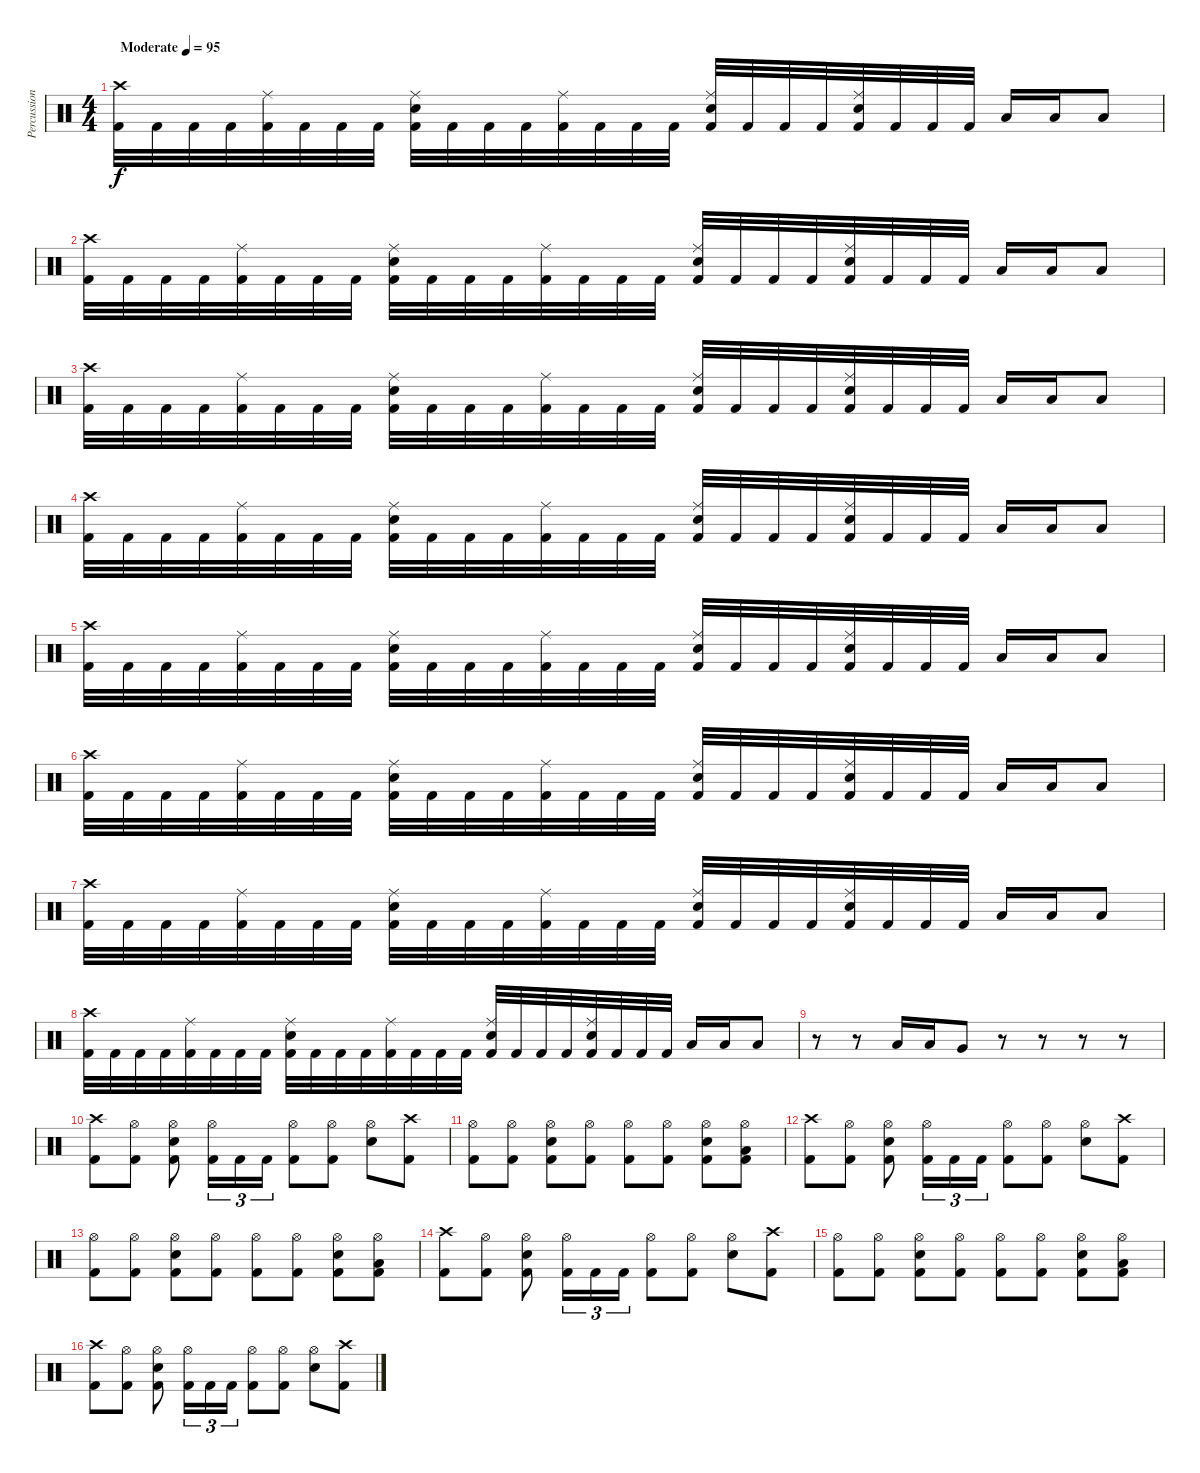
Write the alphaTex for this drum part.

\track ("Percussion" "Percussion") {instrument percussion}
\staff {score}
\articulation defaults
\ts (4 4)
\tempo (95 "Moderate")
\clef neutral
\ks c
("Crash high (hit)" "Kick (hit) 2").32{dy f} "Kick (hit) 2".32 "Kick (hit) 2".32 "Kick (hit) 2".32 ("Ride (middle)" "Kick (hit) 2").32 "Kick (hit) 2".32 "Kick (hit) 2".32 "Kick (hit) 2".32 ("Ride (middle)" "Snare (hit) 2" "Kick (hit) 2").32 "Kick (hit) 2".32 "Kick (hit) 2".32 "Kick (hit) 2".32 ("Ride (middle)" "Kick (hit) 2").32 "Kick (hit) 2".32 "Kick (hit) 2".32 "Kick (hit) 2".32 ("Ride (middle)" "Snare (hit) 2" "Kick (hit) 2").32 "Kick (hit) 2".32 "Kick (hit) 2".32 "Kick (hit) 2".32 ("Ride (middle)" "Snare (hit) 2" "Kick (hit) 2").32 "Kick (hit) 2".32 "Kick (hit) 2".32 "Kick (hit) 2".32 "Low Tom (hit)".16 "Low Tom (hit)".16 "Low Tom (hit)".8 |
("Crash high (hit)" "Kick (hit) 2").32 "Kick (hit) 2".32 "Kick (hit) 2".32 "Kick (hit) 2".32 ("Ride (middle)" "Kick (hit) 2").32 "Kick (hit) 2".32 "Kick (hit) 2".32 "Kick (hit) 2".32 ("Ride (middle)" "Snare (hit) 2" "Kick (hit) 2").32 "Kick (hit) 2".32 "Kick (hit) 2".32 "Kick (hit) 2".32 ("Ride (middle)" "Kick (hit) 2").32 "Kick (hit) 2".32 "Kick (hit) 2".32 "Kick (hit) 2".32 ("Ride (middle)" "Snare (hit) 2" "Kick (hit) 2").32 "Kick (hit) 2".32 "Kick (hit) 2".32 "Kick (hit) 2".32 ("Ride (middle)" "Snare (hit) 2" "Kick (hit) 2").32 "Kick (hit) 2".32 "Kick (hit) 2".32 "Kick (hit) 2".32 "Low Tom (hit)".16 "Low Tom (hit)".16 "Low Tom (hit)".8 |
("Crash high (hit)" "Kick (hit) 2").32 "Kick (hit) 2".32 "Kick (hit) 2".32 "Kick (hit) 2".32 ("Ride (middle)" "Kick (hit) 2").32 "Kick (hit) 2".32 "Kick (hit) 2".32 "Kick (hit) 2".32 ("Ride (middle)" "Snare (hit) 2" "Kick (hit) 2").32 "Kick (hit) 2".32 "Kick (hit) 2".32 "Kick (hit) 2".32 ("Ride (middle)" "Kick (hit) 2").32 "Kick (hit) 2".32 "Kick (hit) 2".32 "Kick (hit) 2".32 ("Ride (middle)" "Snare (hit) 2" "Kick (hit) 2").32 "Kick (hit) 2".32 "Kick (hit) 2".32 "Kick (hit) 2".32 ("Ride (middle)" "Snare (hit) 2" "Kick (hit) 2").32 "Kick (hit) 2".32 "Kick (hit) 2".32 "Kick (hit) 2".32 "Low Tom (hit)".16 "Low Tom (hit)".16 "Low Tom (hit)".8 |
("Crash high (hit)" "Kick (hit) 2").32 "Kick (hit) 2".32 "Kick (hit) 2".32 "Kick (hit) 2".32 ("Ride (middle)" "Kick (hit) 2").32 "Kick (hit) 2".32 "Kick (hit) 2".32 "Kick (hit) 2".32 ("Ride (middle)" "Snare (hit) 2" "Kick (hit) 2").32 "Kick (hit) 2".32 "Kick (hit) 2".32 "Kick (hit) 2".32 ("Ride (middle)" "Kick (hit) 2").32 "Kick (hit) 2".32 "Kick (hit) 2".32 "Kick (hit) 2".32 ("Ride (middle)" "Snare (hit) 2" "Kick (hit) 2").32 "Kick (hit) 2".32 "Kick (hit) 2".32 "Kick (hit) 2".32 ("Ride (middle)" "Snare (hit) 2" "Kick (hit) 2").32 "Kick (hit) 2".32 "Kick (hit) 2".32 "Kick (hit) 2".32 "Low Tom (hit)".16 "Low Tom (hit)".16 "Low Tom (hit)".8 |
("Crash high (hit)" "Kick (hit) 2").32 "Kick (hit) 2".32 "Kick (hit) 2".32 "Kick (hit) 2".32 ("Ride (middle)" "Kick (hit) 2").32 "Kick (hit) 2".32 "Kick (hit) 2".32 "Kick (hit) 2".32 ("Ride (middle)" "Snare (hit) 2" "Kick (hit) 2").32 "Kick (hit) 2".32 "Kick (hit) 2".32 "Kick (hit) 2".32 ("Ride (middle)" "Kick (hit) 2").32 "Kick (hit) 2".32 "Kick (hit) 2".32 "Kick (hit) 2".32 ("Ride (middle)" "Snare (hit) 2" "Kick (hit) 2").32 "Kick (hit) 2".32 "Kick (hit) 2".32 "Kick (hit) 2".32 ("Ride (middle)" "Snare (hit) 2" "Kick (hit) 2").32 "Kick (hit) 2".32 "Kick (hit) 2".32 "Kick (hit) 2".32 "Low Tom (hit)".16 "Low Tom (hit)".16 "Low Tom (hit)".8 |
("Crash high (hit)" "Kick (hit) 2").32 "Kick (hit) 2".32 "Kick (hit) 2".32 "Kick (hit) 2".32 ("Ride (middle)" "Kick (hit) 2").32 "Kick (hit) 2".32 "Kick (hit) 2".32 "Kick (hit) 2".32 ("Ride (middle)" "Snare (hit) 2" "Kick (hit) 2").32 "Kick (hit) 2".32 "Kick (hit) 2".32 "Kick (hit) 2".32 ("Ride (middle)" "Kick (hit) 2").32 "Kick (hit) 2".32 "Kick (hit) 2".32 "Kick (hit) 2".32 ("Ride (middle)" "Snare (hit) 2" "Kick (hit) 2").32 "Kick (hit) 2".32 "Kick (hit) 2".32 "Kick (hit) 2".32 ("Ride (middle)" "Snare (hit) 2" "Kick (hit) 2").32 "Kick (hit) 2".32 "Kick (hit) 2".32 "Kick (hit) 2".32 "Low Tom (hit)".16 "Low Tom (hit)".16 "Low Tom (hit)".8 |
("Crash high (hit)" "Kick (hit) 2").32 "Kick (hit) 2".32 "Kick (hit) 2".32 "Kick (hit) 2".32 ("Ride (middle)" "Kick (hit) 2").32 "Kick (hit) 2".32 "Kick (hit) 2".32 "Kick (hit) 2".32 ("Ride (middle)" "Snare (hit) 2" "Kick (hit) 2").32 "Kick (hit) 2".32 "Kick (hit) 2".32 "Kick (hit) 2".32 ("Ride (middle)" "Kick (hit) 2").32 "Kick (hit) 2".32 "Kick (hit) 2".32 "Kick (hit) 2".32 ("Ride (middle)" "Snare (hit) 2" "Kick (hit) 2").32 "Kick (hit) 2".32 "Kick (hit) 2".32 "Kick (hit) 2".32 ("Ride (middle)" "Snare (hit) 2" "Kick (hit) 2").32 "Kick (hit) 2".32 "Kick (hit) 2".32 "Kick (hit) 2".32 "Low Tom (hit)".16 "Low Tom (hit)".16 "Low Tom (hit)".8 |
("Crash high (hit)" "Kick (hit) 2").32 "Kick (hit) 2".32 "Kick (hit) 2".32 "Kick (hit) 2".32 ("Ride (middle)" "Kick (hit) 2").32 "Kick (hit) 2".32 "Kick (hit) 2".32 "Kick (hit) 2".32 ("Ride (middle)" "Snare (hit) 2" "Kick (hit) 2").32 "Kick (hit) 2".32 "Kick (hit) 2".32 "Kick (hit) 2".32 ("Ride (middle)" "Kick (hit) 2").32 "Kick (hit) 2".32 "Kick (hit) 2".32 "Kick (hit) 2".32 ("Ride (middle)" "Snare (hit) 2" "Kick (hit) 2").32 "Kick (hit) 2".32 "Kick (hit) 2".32 "Kick (hit) 2".32 ("Ride (middle)" "Snare (hit) 2" "Kick (hit) 2").32 "Kick (hit) 2".32 "Kick (hit) 2".32 "Kick (hit) 2".32 "Low Tom (hit)".16 "Low Tom (hit)".16 "Low Tom (hit)".8 |
r.8 r.8 "Low Tom (hit)".16 "Low Tom (hit)".16 "Very Low Tom (hit)".8 r.8 r.8 r.8 r.8 |
("Crash high (hit)" "Kick (hit) 2").8 ("Hi-Hat (open)" "Kick (hit) 2").8 ("Hi-Hat (open)" "Snare (hit) 2" "Kick (hit) 2").8 ("Hi-Hat (open)" "Kick (hit) 2").16{tu (3 2)} "Kick (hit) 2".16{tu (3 2)} "Kick (hit) 2".16{tu (3 2)} ("Hi-Hat (open)" "Kick (hit) 2").8 ("Hi-Hat (open)" "Kick (hit) 2").8 ("Hi-Hat (open)" "Snare (hit) 2").8 ("Crash high (hit)" "Kick (hit) 2").8 |
("Hi-Hat (open)" "Kick (hit) 2").8 ("Hi-Hat (open)" "Kick (hit) 2").8 ("Hi-Hat (open)" "Snare (hit) 2" "Kick (hit) 2").8 ("Hi-Hat (open)" "Kick (hit) 2").8 ("Hi-Hat (open)" "Kick (hit) 2").8 ("Hi-Hat (open)" "Kick (hit) 2").8 ("Hi-Hat (open)" "Snare (hit) 2" "Kick (hit) 2").8 ("Hi-Hat (open)" "Low Tom (hit)" "Kick (hit) 2").8 |
("Crash high (hit)" "Kick (hit) 2").8 ("Hi-Hat (open)" "Kick (hit) 2").8 ("Hi-Hat (open)" "Snare (hit) 2" "Kick (hit) 2").8 ("Hi-Hat (open)" "Kick (hit) 2").16{tu (3 2)} "Kick (hit) 2".16{tu (3 2)} "Kick (hit) 2".16{tu (3 2)} ("Hi-Hat (open)" "Kick (hit) 2").8 ("Hi-Hat (open)" "Kick (hit) 2").8 ("Hi-Hat (open)" "Snare (hit) 2").8 ("Crash high (hit)" "Kick (hit) 2").8 |
("Hi-Hat (open)" "Kick (hit) 2").8 ("Hi-Hat (open)" "Kick (hit) 2").8 ("Hi-Hat (open)" "Snare (hit) 2" "Kick (hit) 2").8 ("Hi-Hat (open)" "Kick (hit) 2").8 ("Hi-Hat (open)" "Kick (hit) 2").8 ("Hi-Hat (open)" "Kick (hit) 2").8 ("Hi-Hat (open)" "Snare (hit) 2" "Kick (hit) 2").8 ("Hi-Hat (open)" "Low Tom (hit)" "Kick (hit) 2").8 |
("Crash high (hit)" "Kick (hit) 2").8 ("Hi-Hat (open)" "Kick (hit) 2").8 ("Hi-Hat (open)" "Snare (hit) 2" "Kick (hit) 2").8 ("Hi-Hat (open)" "Kick (hit) 2").16{tu (3 2)} "Kick (hit) 2".16{tu (3 2)} "Kick (hit) 2".16{tu (3 2)} ("Hi-Hat (open)" "Kick (hit) 2").8 ("Hi-Hat (open)" "Kick (hit) 2").8 ("Hi-Hat (open)" "Snare (hit) 2").8 ("Crash high (hit)" "Kick (hit) 2").8 |
("Hi-Hat (open)" "Kick (hit) 2").8 ("Hi-Hat (open)" "Kick (hit) 2").8 ("Hi-Hat (open)" "Snare (hit) 2" "Kick (hit) 2").8 ("Hi-Hat (open)" "Kick (hit) 2").8 ("Hi-Hat (open)" "Kick (hit) 2").8 ("Hi-Hat (open)" "Kick (hit) 2").8 ("Hi-Hat (open)" "Snare (hit) 2" "Kick (hit) 2").8 ("Hi-Hat (open)" "Low Tom (hit)" "Kick (hit) 2").8 |
("Crash high (hit)" "Kick (hit) 2").8 ("Hi-Hat (open)" "Kick (hit) 2").8 ("Hi-Hat (open)" "Snare (hit) 2" "Kick (hit) 2").8 ("Hi-Hat (open)" "Kick (hit) 2").16{tu (3 2)} "Kick (hit) 2".16{tu (3 2)} "Kick (hit) 2".16{tu (3 2)} ("Hi-Hat (open)" "Kick (hit) 2").8 ("Hi-Hat (open)" "Kick (hit) 2").8 ("Hi-Hat (open)" "Snare (hit) 2").8 ("Crash high (hit)" "Kick (hit) 2").8
